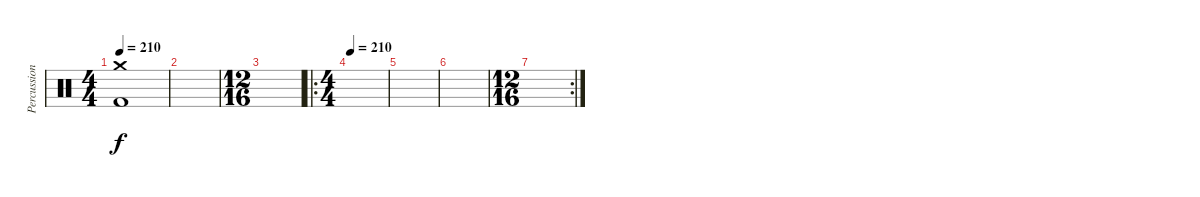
\track ("Percussion" "Percussion") {instrument percussion}
\staff {score}
\articulation defaults
\ts (4 4)
\tempo 210
\clef neutral
\ks c
("Crash medium (hit)" "Kick (hit) 2").1{dy f} |
|
\ts (12 16)
|
\ro
\ts (4 4)
\tempo 210
|
|
|
\rc 2
\ts (12 16)
